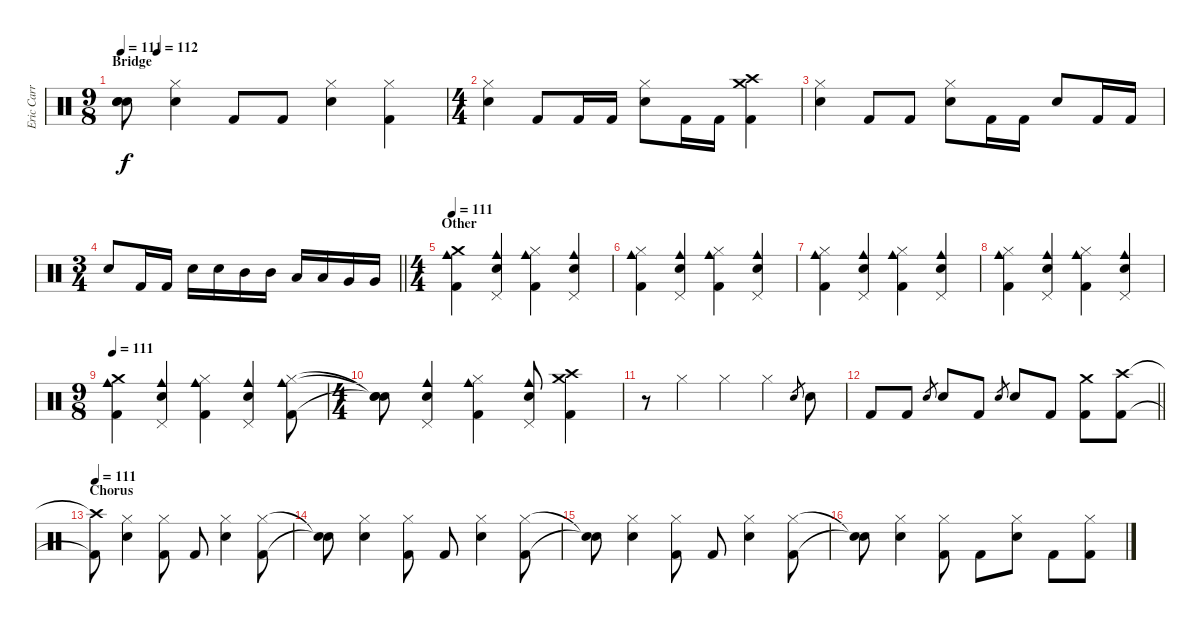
\track ("Eric Carr" "Eric Carr") {instrument percussion}
\staff {score}
\articulation defaults
\ts (9 8)
\section ("" "Bridge")
\tempo 111
\tempo (112 0.1111111111111111)
\clef neutral
\ks c
("Snare (hit)"{t} "Snare (hit)"{t} "Snare (hit)"{t}).8{dy f} ("Hi-Hat (closed)" "Snare (hit) 2").4 "Kick (hit) 2".8 "Kick (hit) 2".8 ("Hi-Hat (closed)" "Snare (hit) 2").4 ("Hi-Hat (closed)" "Kick (hit) 2").4 |
\ts (4 4)
("Hi-Hat (closed)" "Snare (hit) 2").4 "Kick (hit) 2".8 "Kick (hit) 2".16 "Kick (hit) 2".16 ("Hi-Hat (closed)" "Snare (hit) 2").8 "Kick (hit) 2".16 "Kick (hit) 2".16 ("Crash medium (hit)" "Crash high (hit)" "Kick (hit) 2").4 |
("Hi-Hat (closed)" "Snare (hit) 2").4 "Kick (hit) 2".8 "Kick (hit) 2".8 ("Hi-Hat (closed)" "Snare (hit) 2").8 "Kick (hit) 2".16 "Kick (hit) 2".16 "Snare (hit) 2".8 "Kick (hit) 2".16 "Kick (hit) 2".16 |
\ts (3 4)
\barLineRight lightlight "Snare (hit) 2".8 "Kick (hit) 2".16 "Kick (hit) 2".16 "Snare (hit) 2".16 "Snare (hit) 2".16 "Mid Tom (hit)".16 "Mid Tom (hit)".16 "Low Tom (hit)".16 "Low Tom (hit)".16 "Very Low Tom (hit)".16 "Very Low Tom (hit)".16
|
\ts (4 4)
\section ("" "Other")
\tempo 111
("Crash medium (hit)" "Cowbell medium (hit)" "Kick (hit) 2").4 ("Cowbell medium (hit)" "Snare (hit) 2" "Pedal Hi-Hat (hit)").4 ("Hi-Hat (closed)" "Cowbell medium (hit)" "Kick (hit) 2").4 ("Cowbell medium (hit)" "Snare (hit) 2" "Pedal Hi-Hat (hit)").4 |
("Hi-Hat (closed)" "Cowbell medium (hit)" "Kick (hit) 2").4 ("Cowbell medium (hit)" "Snare (hit) 2" "Pedal Hi-Hat (hit)").4 ("Hi-Hat (closed)" "Cowbell medium (hit)" "Kick (hit) 2").4 ("Cowbell medium (hit)" "Snare (hit) 2" "Pedal Hi-Hat (hit)").4 |
("Hi-Hat (closed)" "Cowbell medium (hit)" "Kick (hit) 2").4 ("Cowbell medium (hit)" "Snare (hit) 2" "Pedal Hi-Hat (hit)").4 ("Hi-Hat (closed)" "Cowbell medium (hit)" "Kick (hit) 2").4 ("Cowbell medium (hit)" "Snare (hit) 2" "Pedal Hi-Hat (hit)").4 |
("Hi-Hat (closed)" "Cowbell medium (hit)" "Kick (hit) 2").4 ("Cowbell medium (hit)" "Snare (hit) 2" "Pedal Hi-Hat (hit)").4 ("Hi-Hat (closed)" "Cowbell medium (hit)" "Kick (hit) 2").4 ("Cowbell medium (hit)" "Snare (hit) 2" "Pedal Hi-Hat (hit)").4 |
\ts (9 8)
\tempo 111
("Crash medium (hit)" "Cowbell medium (hit)" "Kick (hit) 2").4 ("Cowbell medium (hit)" "Snare (hit) 2" "Pedal Hi-Hat (hit)").4 ("Hi-Hat (closed)" "Cowbell medium (hit)" "Kick (hit) 2").4 ("Cowbell medium (hit)" "Snare (hit) 2" "Pedal Hi-Hat (hit)").4 ("Hi-Hat (closed)" "Cowbell medium (hit)" "Kick (hit) 2").8 |
\ts (4 4)
("Snare (hit)"{t} "Snare (hit)"{t} "Snare (hit)"{t}).8 ("Cowbell medium (hit)" "Snare (hit) 2" "Pedal Hi-Hat (hit)").4 ("Hi-Hat (closed)" "Cowbell medium (hit)" "Kick (hit) 2").4 ("Cowbell medium (hit)" "Snare (hit) 2" "Pedal Hi-Hat (hit)").8 ("Crash medium (hit)" "Crash high (hit)" "Kick (hit) 2").4 |
r.8 "Hi-Hat (closed)".4 "Hi-Hat (closed)".4 "Hi-Hat (closed)".4 "Snare (hit) 2".8{gr} "Snare (hit) 2".8 |
\barLineRight lightlight "Kick (hit) 2".8 "Kick (hit) 2".8 "Snare (hit) 2".8{gr} "Snare (hit) 2".8 "Kick (hit) 2".8 "Snare (hit) 2".8{gr} "Snare (hit) 2".8 "Kick (hit) 2".8
("Crash medium (hit)" "Kick (hit) 2").8 ("Crash high (hit)" "Kick (hit) 2").8 |
\section ("" "Chorus")
\tempo 111
("Crash high (hit)"{t} "Kick (hit) 2"{t}).8 ("Hi-Hat (closed)" "Snare (hit) 2").4 ("Hi-Hat (closed)" "Kick (hit) 2").8 "Kick (hit) 2".8 ("Hi-Hat (closed)" "Snare (hit) 2").4 ("Hi-Hat (closed)" "Kick (hit) 2").8 |
("Snare (hit)"{t} "Snare (hit)"{t}).8 ("Hi-Hat (closed)" "Snare (hit) 2").4 ("Hi-Hat (closed)" "Kick (hit) 2").8 "Kick (hit) 2".8 ("Hi-Hat (closed)" "Snare (hit) 2").4 ("Hi-Hat (closed)" "Kick (hit) 2").8 |
("Snare (hit)"{t} "Snare (hit)"{t}).8 ("Hi-Hat (closed)" "Snare (hit) 2").4 ("Hi-Hat (closed)" "Kick (hit) 2").8 "Kick (hit) 2".8 ("Hi-Hat (closed)" "Snare (hit) 2").4 ("Hi-Hat (closed)" "Kick (hit) 2").8 |
("Snare (hit)"{t} "Snare (hit)"{t}).8 ("Hi-Hat (closed)" "Snare (hit) 2").4 ("Hi-Hat (closed)" "Kick (hit) 2").8 "Kick (hit) 2".8 ("Hi-Hat (closed)" "Snare (hit) 2").8 "Kick (hit) 2".8 ("Hi-Hat (closed)" "Kick (hit) 2").8
